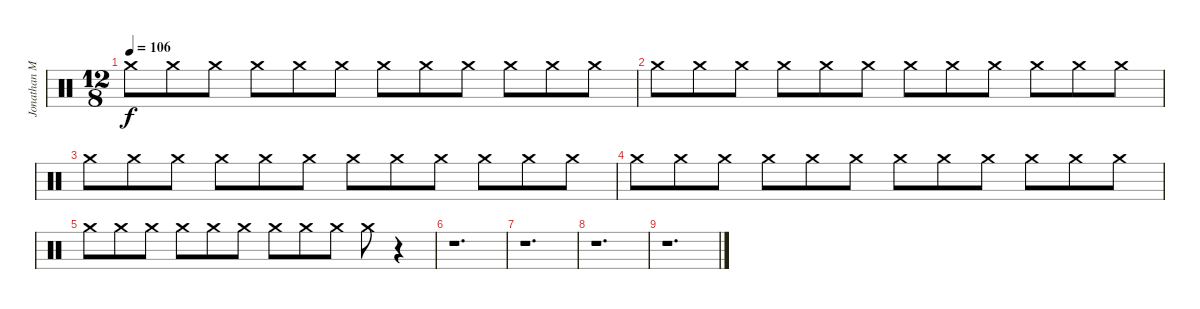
\track ("Jonathan Mover (Studio Drummer)" "Jonathan M") {instrument percussion}
\staff {score}
\articulation defaults
\ts (12 8)
\tempo 106
\clef neutral
\ks c "Crash medium (hit)".8{dy f} "Crash medium (hit)".8 "Crash medium (hit)".8 "Crash medium (hit)".8 "Crash medium (hit)".8 "Crash medium (hit)".8 "Crash medium (hit)".8 "Crash medium (hit)".8 "Crash medium (hit)".8 "Crash medium (hit)".8 "Crash medium (hit)".8 "Crash medium (hit)".8
|
"Crash medium (hit)".8 "Crash medium (hit)".8 "Crash medium (hit)".8 "Crash medium (hit)".8 "Crash medium (hit)".8 "Crash medium (hit)".8 "Crash medium (hit)".8 "Crash medium (hit)".8 "Crash medium (hit)".8 "Crash medium (hit)".8 "Crash medium (hit)".8 "Crash medium (hit)".8 |
"Crash medium (hit)".8 "Crash medium (hit)".8 "Crash medium (hit)".8 "Crash medium (hit)".8 "Crash medium (hit)".8 "Crash medium (hit)".8 "Crash medium (hit)".8 "Crash medium (hit)".8 "Crash medium (hit)".8 "Crash medium (hit)".8 "Crash medium (hit)".8 "Crash medium (hit)".8 |
"Crash medium (hit)".8 "Crash medium (hit)".8 "Crash medium (hit)".8 "Crash medium (hit)".8 "Crash medium (hit)".8 "Crash medium (hit)".8 "Crash medium (hit)".8 "Crash medium (hit)".8 "Crash medium (hit)".8 "Crash medium (hit)".8 "Crash medium (hit)".8 "Crash medium (hit)".8 |
"Crash medium (hit)".8 "Crash medium (hit)".8 "Crash medium (hit)".8 "Crash medium (hit)".8 "Crash medium (hit)".8 "Crash medium (hit)".8 "Crash medium (hit)".8 "Crash medium (hit)".8 "Crash medium (hit)".8 "Crash medium (hit)".8 r.4 |
r.1{d} |
r.1{d} |
r.1{d} |
r.1{d}
